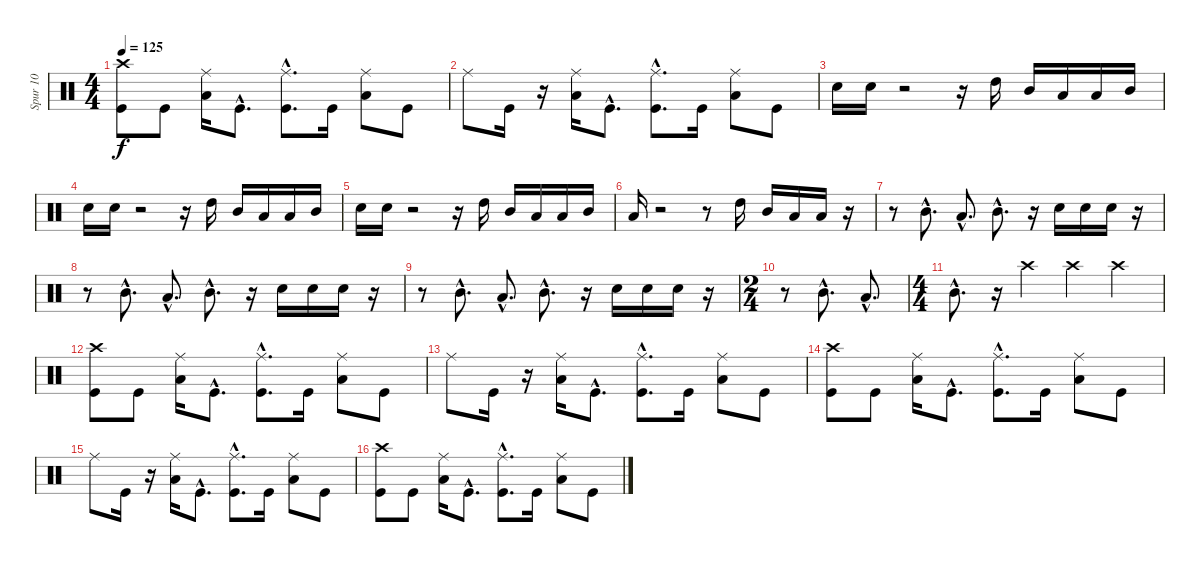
\track ("Spur 10" "Spur 10") {instrument percussion}
\staff {score}
\articulation defaults
\ts (4 4)
\tempo 125
\clef neutral
\ks c
("Crash high (hit)" "Kick (hit)").8{dy f} "Kick (hit)".8 ("Ride (middle)" "Low Tom (hit)").16 "Kick (hit)"{hac}.8{d} ("Kick (hit)"{hac} "Ride (middle)").8{d} "Kick (hit)".16 ("Ride (middle)" "Low Tom (hit)").8 "Kick (hit)".8 |
"Ride (middle)".8 "Kick (hit)".16 r.16 ("Ride (middle)" "Low Tom (hit)").16 "Kick (hit)"{hac}.8{d} ("Ride (middle)" "Kick (hit)"{hac}).8{d} "Kick (hit)".16 ("Low Tom (hit)" "Ride (middle)").8 "Kick (hit)".8 |
"Electric Snare (hit)".16 "Electric Snare (hit)".16 r.2 r.16 "High Tom (hit)".16 "Mid Tom (hit)".16 "Low Tom (hit)".16 "Low Tom (hit)".16 "Mid Tom (hit)".16 |
"Electric Snare (hit)".16 "Electric Snare (hit)".16 r.2 r.16 "High Tom (hit)".16 "Mid Tom (hit)".16 "Low Tom (hit)".16 "Low Tom (hit)".16 "Mid Tom (hit)".16 |
"Electric Snare (hit)".16 "Electric Snare (hit)".16 r.2 r.16 "High Tom (hit)".16 "Mid Tom (hit)".16 "Low Tom (hit)".16 "Low Tom (hit)".16 "Mid Tom (hit)".16 |
"Low Tom (hit)".16 r.2 r.8 "High Tom (hit)".16 "Mid Tom (hit)".16 "Low Tom (hit)".16 "Low Tom (hit)".16 r.16 |
r.8 "Mid Tom (hit)"{hac}.8{d} "Low Tom (hit)"{hac}.8{d} "Mid Tom (hit)"{hac}.8{d} r.16 "Electric Snare (hit)".16 "Electric Snare (hit)".16 "Electric Snare (hit)".16 r.16 |
r.8 "Mid Tom (hit)"{hac}.8{d} "Low Tom (hit)"{hac}.8{d} "Mid Tom (hit)"{hac}.8{d} r.16 "Electric Snare (hit)".16 "Electric Snare (hit)".16 "Electric Snare (hit)".16 r.16 |
r.8 "Mid Tom (hit)"{hac}.8{d} "Low Tom (hit)"{hac}.8{d} "Mid Tom (hit)"{hac}.8{d} r.16 "Electric Snare (hit)".16 "Electric Snare (hit)".16 "Electric Snare (hit)".16 r.16 |
\ts (2 4)
r.8 "Mid Tom (hit)"{hac}.8{d} "Low Tom (hit)"{hac}.8{d} |
\ts (4 4)
"Mid Tom (hit)"{hac}.8{d} r.16 "Crash high (hit)".4 "Crash high (hit)".4 "Crash high (hit)".4 |
("Crash high (hit)" "Kick (hit)").8 "Kick (hit)".8 ("Ride (middle)" "Low Tom (hit)").16 "Kick (hit)"{hac}.8{d} ("Ride (middle)" "Kick (hit)"{hac}).8{d} "Kick (hit)".16 ("Low Tom (hit)" "Ride (middle)").8 "Kick (hit)".8 |
"Ride (middle)".8 "Kick (hit)".16 r.16 ("Low Tom (hit)" "Ride (middle)").16 "Kick (hit)"{hac}.8{d} ("Kick (hit)"{hac} "Ride (middle)").8{d} "Kick (hit)".16 ("Ride (middle)" "Low Tom (hit)").8 "Kick (hit)".8 |
("Crash high (hit)" "Kick (hit)").8 "Kick (hit)".8 ("Low Tom (hit)" "Ride (middle)").16 "Kick (hit)"{hac}.8{d} ("Ride (middle)" "Kick (hit)"{hac}).8{d} "Kick (hit)".16 ("Low Tom (hit)" "Ride (middle)").8 "Kick (hit)".8 |
"Ride (middle)".8 "Kick (hit)".16 r.16 ("Low Tom (hit)" "Ride (middle)").16 "Kick (hit)"{hac}.8{d} ("Kick (hit)"{hac} "Ride (middle)").8{d} "Kick (hit)".16 ("Ride (middle)" "Low Tom (hit)").8 "Kick (hit)".8 |
("Crash high (hit)" "Kick (hit)").8 "Kick (hit)".8 ("Low Tom (hit)" "Ride (middle)").16 "Kick (hit)"{hac}.8{d} ("Kick (hit)"{hac} "Ride (middle)").8{d} "Kick (hit)".16 ("Ride (middle)" "Low Tom (hit)").8 "Kick (hit)".8
